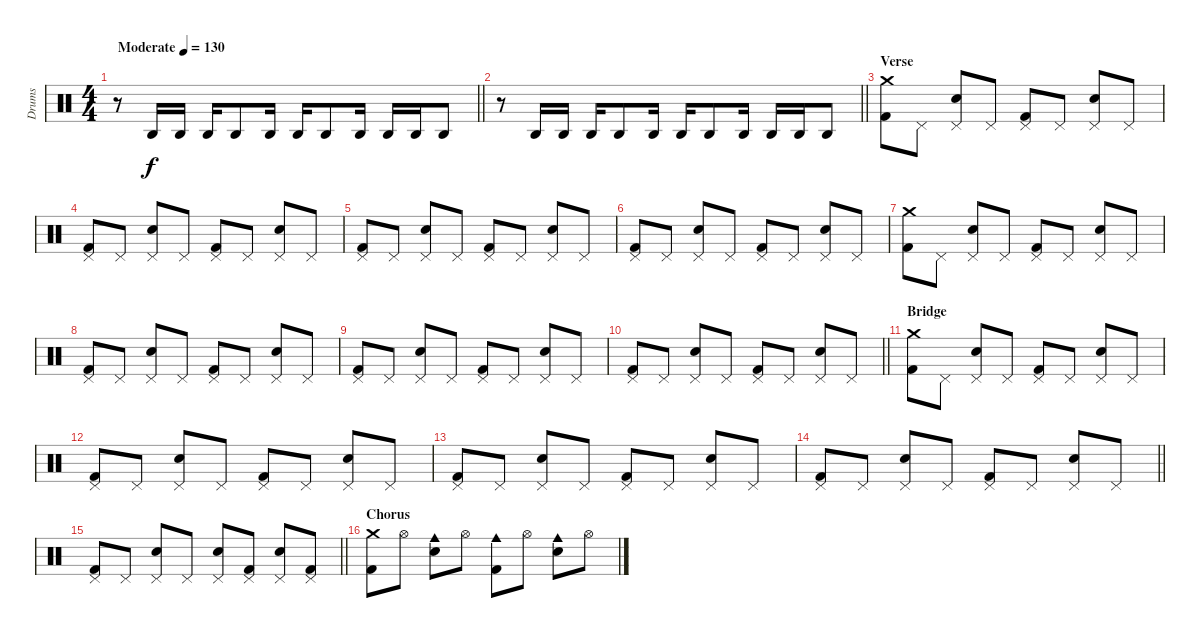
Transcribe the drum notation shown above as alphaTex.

\track ("Drums" "Drums") {instrument percussion}
\staff {score}
\articulation defaults
\ts (4 4)
\tempo (130 "Moderate")
\clef neutral
\barLineRight lightlight
\ks c
r.8{dy f} "Agogo high (hit)".16 "Agogo high (hit)".16 "Agogo high (hit)".16 "Agogo high (hit)".8 "Agogo high (hit)".16 "Agogo high (hit)".16 "Agogo high (hit)".8 "Agogo high (hit)".16 "Agogo high (hit)".16 "Agogo high (hit)".16 "Agogo high (hit)".8 |
\barLineRight lightlight
r.8 "Agogo high (hit)".16 "Agogo high (hit)".16 "Agogo high (hit)".16 "Agogo high (hit)".8 "Agogo high (hit)".16 "Agogo high (hit)".16 "Agogo high (hit)".8 "Agogo high (hit)".16 "Agogo high (hit)".16 "Agogo high (hit)".16 "Agogo high (hit)".8 |
\section ("" "Verse")
("Crash medium (hit)" "Kick (hit) 2").8 "Pedal Hi-Hat (hit)".8 ("Pedal Hi-Hat (hit)" "Snare (hit) 2").8 "Pedal Hi-Hat (hit)".8 ("Pedal Hi-Hat (hit)" "Kick (hit) 2").8 "Pedal Hi-Hat (hit)".8 ("Pedal Hi-Hat (hit)" "Snare (hit) 2").8 "Pedal Hi-Hat (hit)".8 |
("Pedal Hi-Hat (hit)" "Kick (hit) 2").8 "Pedal Hi-Hat (hit)".8 ("Pedal Hi-Hat (hit)" "Snare (hit) 2").8 "Pedal Hi-Hat (hit)".8 ("Pedal Hi-Hat (hit)" "Kick (hit) 2").8 "Pedal Hi-Hat (hit)".8 ("Pedal Hi-Hat (hit)" "Snare (hit) 2").8 "Pedal Hi-Hat (hit)".8 |
("Pedal Hi-Hat (hit)" "Kick (hit) 2").8 "Pedal Hi-Hat (hit)".8 ("Pedal Hi-Hat (hit)" "Snare (hit) 2").8 "Pedal Hi-Hat (hit)".8 ("Pedal Hi-Hat (hit)" "Kick (hit) 2").8 "Pedal Hi-Hat (hit)".8 ("Pedal Hi-Hat (hit)" "Snare (hit) 2").8 "Pedal Hi-Hat (hit)".8 |
("Pedal Hi-Hat (hit)" "Kick (hit) 2").8 "Pedal Hi-Hat (hit)".8 ("Pedal Hi-Hat (hit)" "Snare (hit) 2").8 "Pedal Hi-Hat (hit)".8 ("Pedal Hi-Hat (hit)" "Kick (hit) 2").8 "Pedal Hi-Hat (hit)".8 ("Pedal Hi-Hat (hit)" "Snare (hit) 2").8 "Pedal Hi-Hat (hit)".8 |
("Crash medium (hit)" "Kick (hit) 2").8 "Pedal Hi-Hat (hit)".8 ("Pedal Hi-Hat (hit)" "Snare (hit) 2").8 "Pedal Hi-Hat (hit)".8 ("Pedal Hi-Hat (hit)" "Kick (hit) 2").8 "Pedal Hi-Hat (hit)".8 ("Pedal Hi-Hat (hit)" "Snare (hit) 2").8 "Pedal Hi-Hat (hit)".8 |
("Pedal Hi-Hat (hit)" "Kick (hit) 2").8 "Pedal Hi-Hat (hit)".8 ("Pedal Hi-Hat (hit)" "Snare (hit) 2").8 "Pedal Hi-Hat (hit)".8 ("Pedal Hi-Hat (hit)" "Kick (hit) 2").8 "Pedal Hi-Hat (hit)".8 ("Pedal Hi-Hat (hit)" "Snare (hit) 2").8 "Pedal Hi-Hat (hit)".8 |
("Pedal Hi-Hat (hit)" "Kick (hit) 2").8 "Pedal Hi-Hat (hit)".8 ("Pedal Hi-Hat (hit)" "Snare (hit) 2").8 "Pedal Hi-Hat (hit)".8 ("Pedal Hi-Hat (hit)" "Kick (hit) 2").8 "Pedal Hi-Hat (hit)".8 ("Pedal Hi-Hat (hit)" "Snare (hit) 2").8 "Pedal Hi-Hat (hit)".8 |
\barLineRight lightlight
("Pedal Hi-Hat (hit)" "Kick (hit) 2").8 "Pedal Hi-Hat (hit)".8 ("Pedal Hi-Hat (hit)" "Snare (hit) 2").8 "Pedal Hi-Hat (hit)".8 ("Pedal Hi-Hat (hit)" "Kick (hit) 2").8 "Pedal Hi-Hat (hit)".8 ("Pedal Hi-Hat (hit)" "Snare (hit) 2").8 "Pedal Hi-Hat (hit)".8 |
\section ("" "Bridge")
("Crash medium (hit)" "Kick (hit) 2").8 "Pedal Hi-Hat (hit)".8 ("Pedal Hi-Hat (hit)" "Snare (hit) 2").8 "Pedal Hi-Hat (hit)".8 ("Pedal Hi-Hat (hit)" "Kick (hit) 2").8 "Pedal Hi-Hat (hit)".8 ("Pedal Hi-Hat (hit)" "Snare (hit) 2").8 "Pedal Hi-Hat (hit)".8 |
("Pedal Hi-Hat (hit)" "Kick (hit) 2").8 "Pedal Hi-Hat (hit)".8 ("Pedal Hi-Hat (hit)" "Snare (hit) 2").8 "Pedal Hi-Hat (hit)".8 ("Pedal Hi-Hat (hit)" "Kick (hit) 2").8 "Pedal Hi-Hat (hit)".8 ("Pedal Hi-Hat (hit)" "Snare (hit) 2").8 "Pedal Hi-Hat (hit)".8 |
("Pedal Hi-Hat (hit)" "Kick (hit) 2").8 "Pedal Hi-Hat (hit)".8 ("Pedal Hi-Hat (hit)" "Snare (hit) 2").8 "Pedal Hi-Hat (hit)".8 ("Pedal Hi-Hat (hit)" "Kick (hit) 2").8 "Pedal Hi-Hat (hit)".8 ("Pedal Hi-Hat (hit)" "Snare (hit) 2").8 "Pedal Hi-Hat (hit)".8 |
\barLineRight lightlight
("Pedal Hi-Hat (hit)" "Kick (hit) 2").8 "Pedal Hi-Hat (hit)".8 ("Pedal Hi-Hat (hit)" "Snare (hit) 2").8 "Pedal Hi-Hat (hit)".8 ("Pedal Hi-Hat (hit)" "Kick (hit) 2").8 "Pedal Hi-Hat (hit)".8 ("Pedal Hi-Hat (hit)" "Snare (hit) 2").8 "Pedal Hi-Hat (hit)".8 |
\barLineRight lightlight
("Pedal Hi-Hat (hit)" "Kick (hit) 2").8 "Pedal Hi-Hat (hit)".8 ("Pedal Hi-Hat (hit)" "Snare (hit) 2").8 "Pedal Hi-Hat (hit)".8 ("Pedal Hi-Hat (hit)" "Snare (hit) 2").8 ("Pedal Hi-Hat (hit)" "Kick (hit) 2").8 ("Pedal Hi-Hat (hit)" "Snare (hit) 2").8 ("Pedal Hi-Hat (hit)" "Kick (hit) 2").8 |
\section ("" "Chorus")
("Crash medium (hit)" "Kick (hit) 2").8 "Hi-Hat (open)".8 ("Cowbell medium (hit)" "Snare (hit) 2").8 "Hi-Hat (open)".8 ("Cowbell medium (hit)" "Kick (hit) 2").8 "Hi-Hat (open)".8 ("Cowbell medium (hit)" "Snare (hit) 2").8 "Hi-Hat (open)".8
